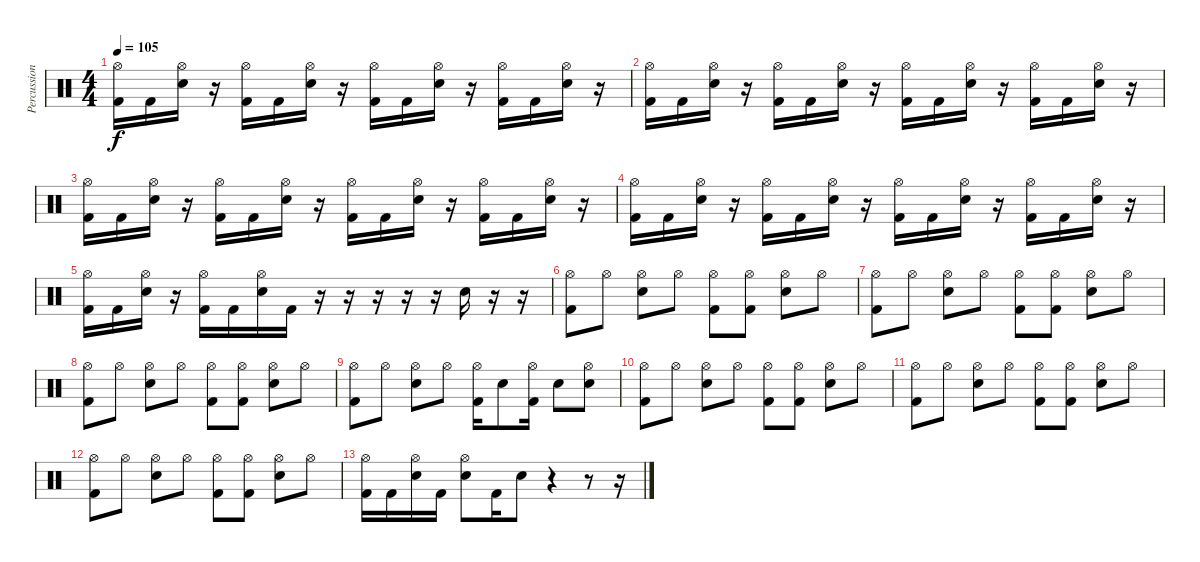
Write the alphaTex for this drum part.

\track ("Percussion" "Percussion") {instrument percussion}
\staff {score}
\articulation defaults
\ts (4 4)
\tempo 105
\clef neutral
\ks c
("Hi-Hat (open)" "Kick (hit) 2").16{dy f} "Kick (hit) 2".16 ("Hi-Hat (open)" "Snare (hit) 2").16 r.16 ("Hi-Hat (open)" "Kick (hit) 2").16 "Kick (hit) 2".16 ("Hi-Hat (open)" "Snare (hit) 2").16 r.16 ("Hi-Hat (open)" "Kick (hit) 2").16 "Kick (hit) 2".16 ("Hi-Hat (open)" "Snare (hit) 2").16 r.16 ("Hi-Hat (open)" "Kick (hit) 2").16 "Kick (hit) 2".16 ("Hi-Hat (open)" "Snare (hit) 2").16 r.16 |
("Hi-Hat (open)" "Kick (hit) 2").16 "Kick (hit) 2".16 ("Hi-Hat (open)" "Snare (hit) 2").16 r.16 ("Hi-Hat (open)" "Kick (hit) 2").16 "Kick (hit) 2".16 ("Hi-Hat (open)" "Snare (hit) 2").16 r.16 ("Hi-Hat (open)" "Kick (hit) 2").16 "Kick (hit) 2".16 ("Hi-Hat (open)" "Snare (hit) 2").16 r.16 ("Hi-Hat (open)" "Kick (hit) 2").16 "Kick (hit) 2".16 ("Hi-Hat (open)" "Snare (hit) 2").16 r.16 |
("Hi-Hat (open)" "Kick (hit) 2").16 "Kick (hit) 2".16 ("Hi-Hat (open)" "Snare (hit) 2").16 r.16 ("Hi-Hat (open)" "Kick (hit) 2").16 "Kick (hit) 2".16 ("Hi-Hat (open)" "Snare (hit) 2").16 r.16 ("Hi-Hat (open)" "Kick (hit) 2").16 "Kick (hit) 2".16 ("Hi-Hat (open)" "Snare (hit) 2").16 r.16 ("Hi-Hat (open)" "Kick (hit) 2").16 "Kick (hit) 2".16 ("Hi-Hat (open)" "Snare (hit) 2").16 r.16 |
("Hi-Hat (open)" "Kick (hit) 2").16 "Kick (hit) 2".16 ("Hi-Hat (open)" "Snare (hit) 2").16 r.16 ("Hi-Hat (open)" "Kick (hit) 2").16 "Kick (hit) 2".16 ("Hi-Hat (open)" "Snare (hit) 2").16 r.16 ("Hi-Hat (open)" "Kick (hit) 2").16 "Kick (hit) 2".16 ("Hi-Hat (open)" "Snare (hit) 2").16 r.16 ("Hi-Hat (open)" "Kick (hit) 2").16 "Kick (hit) 2".16 ("Hi-Hat (open)" "Snare (hit) 2").16 r.16 |
("Hi-Hat (open)" "Kick (hit) 2").16 "Kick (hit) 2".16 ("Hi-Hat (open)" "Snare (hit) 2").16 r.16 ("Hi-Hat (open)" "Kick (hit) 2").16 "Kick (hit) 2".16 ("Hi-Hat (open)" "Snare (hit) 2").16 "Kick (hit) 2".16 r.16 r.16 r.16 r.16 r.16 "Snare (hit) 2".16 r.16 r.16 |
("Hi-Hat (open)" "Kick (hit) 2").8 "Hi-Hat (open)".8 ("Hi-Hat (open)" "Snare (hit) 2").8 "Hi-Hat (open)".8 ("Hi-Hat (open)" "Kick (hit) 2").8 ("Hi-Hat (open)" "Kick (hit) 2").8 ("Hi-Hat (open)" "Snare (hit) 2").8 "Hi-Hat (open)".8 |
("Hi-Hat (open)" "Kick (hit) 2").8 "Hi-Hat (open)".8 ("Hi-Hat (open)" "Snare (hit) 2").8 "Hi-Hat (open)".8 ("Hi-Hat (open)" "Kick (hit) 2").8 ("Hi-Hat (open)" "Kick (hit) 2").8 ("Hi-Hat (open)" "Snare (hit) 2").8 "Hi-Hat (open)".8 |
("Hi-Hat (open)" "Kick (hit) 2").8 "Hi-Hat (open)".8 ("Hi-Hat (open)" "Snare (hit) 2").8 "Hi-Hat (open)".8 ("Hi-Hat (open)" "Kick (hit) 2").8 ("Hi-Hat (open)" "Kick (hit) 2").8 ("Hi-Hat (open)" "Snare (hit) 2").8 "Hi-Hat (open)".8 |
("Hi-Hat (open)" "Kick (hit) 2").8 "Hi-Hat (open)".8 ("Hi-Hat (open)" "Snare (hit) 2").8 "Hi-Hat (open)".8 ("Hi-Hat (open)" "Kick (hit) 2").16 "Snare (hit) 2".8 ("Hi-Hat (open)" "Kick (hit) 2").16 "Snare (hit) 2".8 ("Hi-Hat (open)" "Snare (hit) 2").8 |
("Hi-Hat (open)" "Kick (hit) 2").8 "Hi-Hat (open)".8 ("Hi-Hat (open)" "Snare (hit) 2").8 "Hi-Hat (open)".8 ("Hi-Hat (open)" "Kick (hit) 2").8 ("Hi-Hat (open)" "Kick (hit) 2").8 ("Hi-Hat (open)" "Snare (hit) 2").8 "Hi-Hat (open)".8 |
("Hi-Hat (open)" "Kick (hit) 2").8 "Hi-Hat (open)".8 ("Hi-Hat (open)" "Snare (hit) 2").8 "Hi-Hat (open)".8 ("Hi-Hat (open)" "Kick (hit) 2").8 ("Hi-Hat (open)" "Kick (hit) 2").8 ("Hi-Hat (open)" "Snare (hit) 2").8 "Hi-Hat (open)".8 |
("Hi-Hat (open)" "Kick (hit) 2").8 "Hi-Hat (open)".8 ("Hi-Hat (open)" "Snare (hit) 2").8 "Hi-Hat (open)".8 ("Hi-Hat (open)" "Kick (hit) 2").8 ("Hi-Hat (open)" "Kick (hit) 2").8 ("Hi-Hat (open)" "Snare (hit) 2").8 "Hi-Hat (open)".8 |
("Hi-Hat (open)" "Kick (hit) 2").16 "Kick (hit) 2".16 ("Hi-Hat (open)" "Snare (hit) 2").16 "Kick (hit) 2".16 ("Hi-Hat (open)" "Snare (hit) 2").8 "Kick (hit) 2".16 "Snare (hit) 2".8 r.4 r.8 r.16
